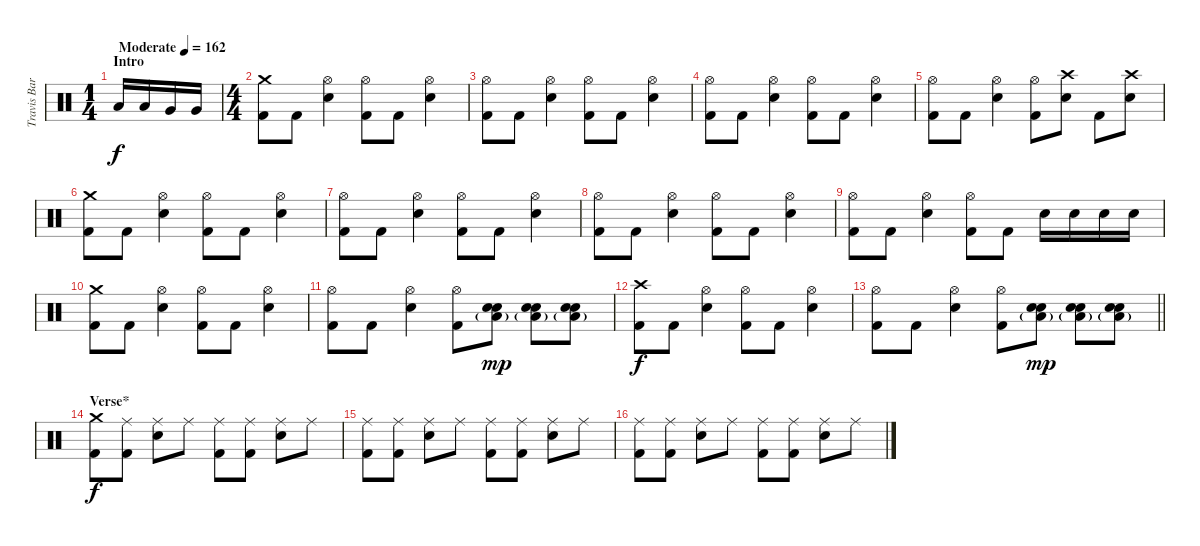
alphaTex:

\track ("Travis Barker - Drums" "Travis Bar") {instrument percussion}
\staff {score}
\articulation defaults
\ts (1 4)
\section ("" "Intro")
\tempo (162 "Moderate")
\clef neutral
\ks c "Low Tom (hit)".16{dy f} "Low Tom (hit)".16 "Very Low Tom (hit)".16 "Very Low Tom (hit)".16
|
\ts (4 4)
("Crash medium (hit)" "Kick (hit) 2").8 "Kick (hit) 2".8 ("Hi-Hat (open)" "Electric Snare (hit)").4 ("Hi-Hat (open)" "Kick (hit) 2").8 "Kick (hit) 2".8 ("Hi-Hat (open)" "Electric Snare (hit)").4 |
("Hi-Hat (open)" "Kick (hit) 2").8 "Kick (hit) 2".8 ("Hi-Hat (open)" "Electric Snare (hit)").4 ("Hi-Hat (open)" "Kick (hit) 2").8 "Kick (hit) 2".8 ("Hi-Hat (open)" "Electric Snare (hit)").4 |
("Hi-Hat (open)" "Kick (hit) 2").8 "Kick (hit) 2".8 ("Hi-Hat (open)" "Electric Snare (hit)").4 ("Hi-Hat (open)" "Kick (hit) 2").8 "Kick (hit) 2".8 ("Hi-Hat (open)" "Electric Snare (hit)").4 |
("Hi-Hat (open)" "Kick (hit) 2").8 "Kick (hit) 2".8 ("Hi-Hat (open)" "Electric Snare (hit)").4 ("Hi-Hat (open)" "Kick (hit) 2").8 ("Crash high (hit)" "Electric Snare (hit)").8 "Kick (hit) 2".8 ("Crash high (hit)" "Electric Snare (hit)").8 |
("Crash medium (hit)" "Kick (hit) 2").8 "Kick (hit) 2".8 ("Hi-Hat (open)" "Electric Snare (hit)").4 ("Hi-Hat (open)" "Kick (hit) 2").8 "Kick (hit) 2".8 ("Hi-Hat (open)" "Electric Snare (hit)").4 |
("Hi-Hat (open)" "Kick (hit) 2").8 "Kick (hit) 2".8 ("Hi-Hat (open)" "Electric Snare (hit)").4 ("Hi-Hat (open)" "Kick (hit) 2").8 "Kick (hit) 2".8 ("Hi-Hat (open)" "Electric Snare (hit)").4 |
("Hi-Hat (open)" "Kick (hit) 2").8 "Kick (hit) 2".8 ("Hi-Hat (open)" "Electric Snare (hit)").4 ("Hi-Hat (open)" "Kick (hit) 2").8 "Kick (hit) 2".8 ("Hi-Hat (open)" "Electric Snare (hit)").4 |
("Hi-Hat (open)" "Kick (hit) 2").8 "Kick (hit) 2".8 ("Hi-Hat (open)" "Electric Snare (hit)").4 ("Hi-Hat (open)" "Kick (hit) 2").8 "Kick (hit) 2".8 "Electric Snare (hit)".16 "Electric Snare (hit)".16 "Electric Snare (hit)".16 "Electric Snare (hit)".16 |
("Crash medium (hit)" "Kick (hit) 2").8 "Kick (hit) 2".8 ("Hi-Hat (open)" "Electric Snare (hit)").4 ("Hi-Hat (open)" "Kick (hit) 2").8 "Kick (hit) 2".8 ("Hi-Hat (open)" "Electric Snare (hit)").4 |
("Hi-Hat (open)" "Kick (hit) 2").8 "Kick (hit) 2".8 ("Hi-Hat (open)" "Electric Snare (hit)").4 ("Hi-Hat (open)" "Kick (hit) 2").8 ("Low Floor Tom (hit)"{g} "Hand Clap (hit)" "Electric Snare (hit)").8{dy mp} ("Low Floor Tom (hit)"{g} "Hand Clap (hit)" "Electric Snare (hit)").8 ("Low Floor Tom (hit)"{g} "Hand Clap (hit)" "Electric Snare (hit)").8 |
("Crash high (hit)" "Kick (hit) 2").8{dy f} "Kick (hit) 2".8 ("Hi-Hat (open)" "Electric Snare (hit)").4 ("Hi-Hat (open)" "Kick (hit) 2").8 "Kick (hit) 2".8 ("Hi-Hat (open)" "Electric Snare (hit)").4 |
\barLineRight lightlight
("Hi-Hat (open)" "Kick (hit) 2").8 "Kick (hit) 2".8 ("Hi-Hat (open)" "Electric Snare (hit)").4 ("Hi-Hat (open)" "Kick (hit) 2").8 ("Low Floor Tom (hit)"{g} "Hand Clap (hit)" "Electric Snare (hit)").8{dy mp} ("Low Floor Tom (hit)"{g} "Hand Clap (hit)" "Electric Snare (hit)").8 ("Low Floor Tom (hit)"{g} "Hand Clap (hit)" "Electric Snare (hit)").8 |
\section ("" "Verse*")
("Crash medium (hit)" "Kick (hit) 2").8{dy f} ("Ride (middle)" "Kick (hit) 2").8 ("Ride (middle)" "Electric Snare (hit)").8 "Ride (middle)".8 ("Ride (middle)" "Kick (hit) 2").8 ("Ride (middle)" "Kick (hit) 2").8 ("Ride (middle)" "Electric Snare (hit)").8 "Ride (middle)".8 |
("Ride (middle)" "Kick (hit) 2").8 ("Ride (middle)" "Kick (hit) 2").8 ("Ride (middle)" "Electric Snare (hit)").8 "Ride (middle)".8 ("Ride (middle)" "Kick (hit) 2").8 ("Ride (middle)" "Kick (hit) 2").8 ("Ride (middle)" "Electric Snare (hit)").8 "Ride (middle)".8 |
("Ride (middle)" "Kick (hit) 2").8 ("Ride (middle)" "Kick (hit) 2").8 ("Ride (middle)" "Electric Snare (hit)").8 "Ride (middle)".8 ("Ride (middle)" "Kick (hit) 2").8 ("Ride (middle)" "Kick (hit) 2").8 ("Ride (middle)" "Electric Snare (hit)").8 "Ride (middle)".8
